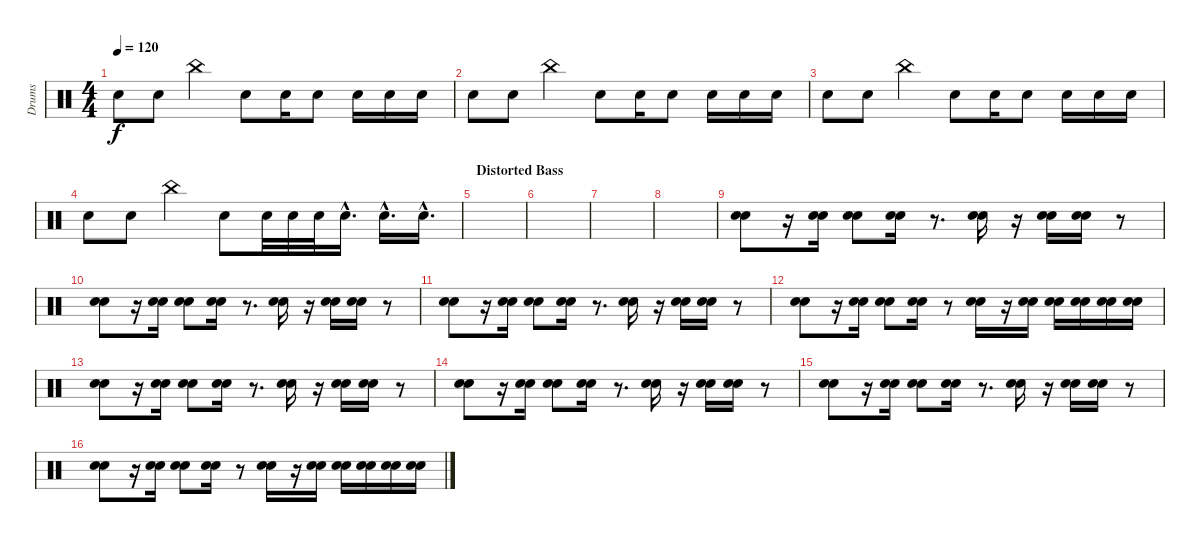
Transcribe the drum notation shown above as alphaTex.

\track ("Drums" "Drums") {instrument percussion}
\staff {score}
\articulation defaults
\ts (4 4)
\tempo 120
\clef neutral
\ks c "Snare (hit) 2".8{dy f} "Snare (hit) 2".8 "China (hit)".4 "Snare (hit) 2".8 "Snare (hit) 2".16 "Snare (hit) 2".8 "Snare (hit) 2".16 "Snare (hit) 2".16 "Snare (hit) 2".16
|
"Snare (hit) 2".8 "Snare (hit) 2".8 "China (hit)".4 "Snare (hit) 2".8 "Snare (hit) 2".16 "Snare (hit) 2".8 "Snare (hit) 2".16 "Snare (hit) 2".16 "Snare (hit) 2".16 |
"Snare (hit) 2".8 "Snare (hit) 2".8 "China (hit)".4 "Snare (hit) 2".8 "Snare (hit) 2".16 "Snare (hit) 2".8 "Snare (hit) 2".16 "Snare (hit) 2".16 "Snare (hit) 2".16 |
"Snare (hit) 2".8 "Snare (hit) 2".8 "China (hit)".4 "Snare (hit) 2".8 "Snare (hit) 2".32 "Snare (hit) 2".32 "Snare (hit) 2".32 "Snare (hit) 2"{hac}.16{d} "Snare (hit) 2"{hac}.16{d} "Snare (hit) 2"{hac}.16{d} |
\section ("" "Distorted Bass")
|
|
|
|
("Snare (hit) 2" "Electric Snare (hit)").8{volume 16} r.16 ("Snare (hit) 2" "Electric Snare (hit)").16 ("Snare (hit) 2" "Electric Snare (hit)").8 ("Snare (hit) 2" "Electric Snare (hit)").16 r.8{d} ("Snare (hit) 2" "Electric Snare (hit)").16 r.16 ("Snare (hit) 2" "Electric Snare (hit)").16 ("Snare (hit) 2" "Electric Snare (hit)").16 r.8 |
("Snare (hit) 2" "Electric Snare (hit)").8 r.16 ("Snare (hit) 2" "Electric Snare (hit)").16 ("Snare (hit) 2" "Electric Snare (hit)").8 ("Snare (hit) 2" "Electric Snare (hit)").16 r.8{d} ("Snare (hit) 2" "Electric Snare (hit)").16 r.16 ("Snare (hit) 2" "Electric Snare (hit)").16 ("Snare (hit) 2" "Electric Snare (hit)").16 r.8 |
("Snare (hit) 2" "Electric Snare (hit)").8 r.16 ("Snare (hit) 2" "Electric Snare (hit)").16 ("Snare (hit) 2" "Electric Snare (hit)").8 ("Snare (hit) 2" "Electric Snare (hit)").16 r.8{d} ("Snare (hit) 2" "Electric Snare (hit)").16 r.16 ("Snare (hit) 2" "Electric Snare (hit)").16 ("Snare (hit) 2" "Electric Snare (hit)").16 r.8 |
("Snare (hit) 2" "Electric Snare (hit)").8 r.16 ("Snare (hit) 2" "Electric Snare (hit)").16 ("Snare (hit) 2" "Electric Snare (hit)").8 ("Snare (hit) 2" "Electric Snare (hit)").16 r.8 ("Snare (hit) 2" "Electric Snare (hit)").16 r.16 ("Snare (hit) 2" "Electric Snare (hit)").16 ("Snare (hit) 2" "Electric Snare (hit)").16 ("Snare (hit) 2" "Electric Snare (hit)").16 ("Snare (hit) 2" "Electric Snare (hit)").16 ("Snare (hit) 2" "Electric Snare (hit)").16 |
("Snare (hit) 2" "Electric Snare (hit)").8{volume 16} r.16 ("Snare (hit) 2" "Electric Snare (hit)").16 ("Snare (hit) 2" "Electric Snare (hit)").8 ("Snare (hit) 2" "Electric Snare (hit)").16 r.8{d} ("Snare (hit) 2" "Electric Snare (hit)").16 r.16 ("Snare (hit) 2" "Electric Snare (hit)").16 ("Snare (hit) 2" "Electric Snare (hit)").16 r.8 |
("Snare (hit) 2" "Electric Snare (hit)").8 r.16 ("Snare (hit) 2" "Electric Snare (hit)").16 ("Snare (hit) 2" "Electric Snare (hit)").8 ("Snare (hit) 2" "Electric Snare (hit)").16 r.8{d} ("Snare (hit) 2" "Electric Snare (hit)").16 r.16 ("Snare (hit) 2" "Electric Snare (hit)").16 ("Snare (hit) 2" "Electric Snare (hit)").16 r.8 |
("Snare (hit) 2" "Electric Snare (hit)").8 r.16 ("Snare (hit) 2" "Electric Snare (hit)").16 ("Snare (hit) 2" "Electric Snare (hit)").8 ("Snare (hit) 2" "Electric Snare (hit)").16 r.8{d} ("Snare (hit) 2" "Electric Snare (hit)").16 r.16 ("Snare (hit) 2" "Electric Snare (hit)").16 ("Snare (hit) 2" "Electric Snare (hit)").16 r.8 |
("Snare (hit) 2" "Electric Snare (hit)").8 r.16 ("Snare (hit) 2" "Electric Snare (hit)").16 ("Snare (hit) 2" "Electric Snare (hit)").8 ("Snare (hit) 2" "Electric Snare (hit)").16 r.8 ("Snare (hit) 2" "Electric Snare (hit)").16 r.16 ("Snare (hit) 2" "Electric Snare (hit)").16 ("Snare (hit) 2" "Electric Snare (hit)").16 ("Snare (hit) 2" "Electric Snare (hit)").16 ("Snare (hit) 2" "Electric Snare (hit)").16 ("Snare (hit) 2" "Electric Snare (hit)").16
